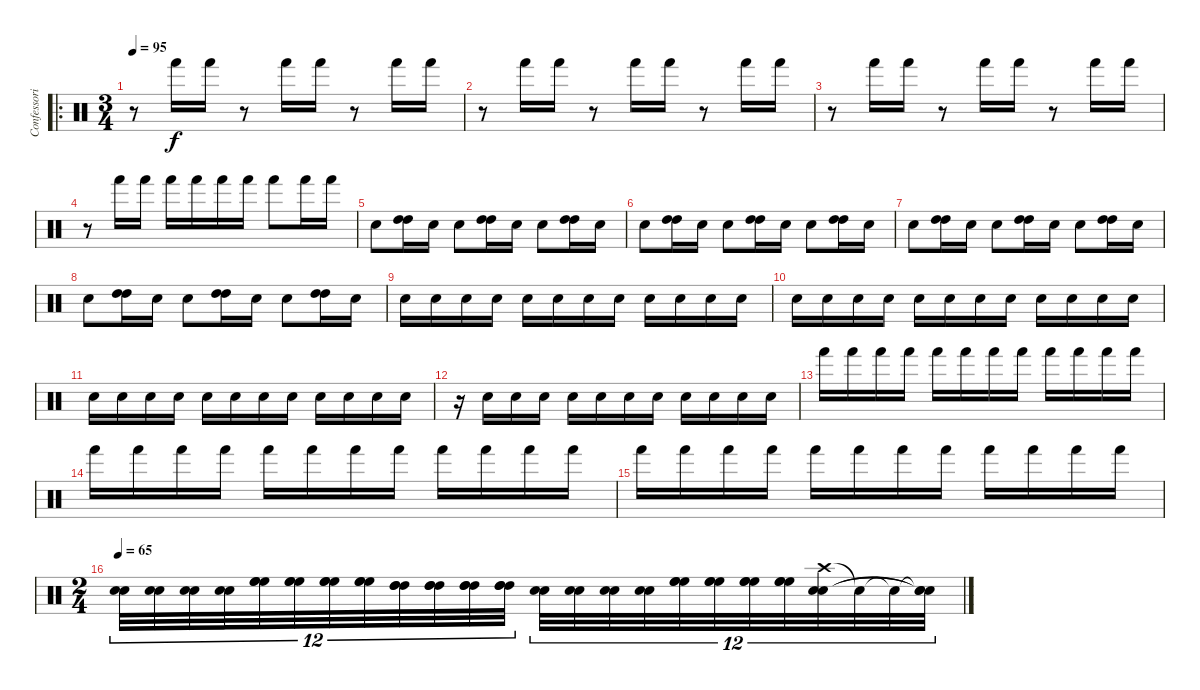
\track ("Confessori" "Confessori") {instrument percussion}
\staff {score}
\articulation defaults
\ro
\ts (3 4)
\tempo 95
\clef neutral
\ks c
r.8{dy f} "Hand (hit)".16 "Hand (hit)".16 r.8 "Hand (hit)".16 "Hand (hit)".16 r.8 "Hand (hit)".16 "Hand (hit)".16 |
r.8 "Hand (hit)".16 "Hand (hit)".16 r.8 "Hand (hit)".16 "Hand (hit)".16 r.8 "Hand (hit)".16 "Hand (hit)".16 |
r.8 "Hand (hit)".16 "Hand (hit)".16 r.8 "Hand (hit)".16 "Hand (hit)".16 r.8 "Hand (hit)".16 "Hand (hit)".16 |
r.8 "Hand (hit)".16 "Hand (hit)".16 "Hand (hit)".16 "Hand (hit)".16 "Hand (hit)".16 "Hand (hit)".16 "Hand (hit)".8 "Hand (hit)".16 "Hand (hit)".16 |
"Electric Snare (hit)".8 ("High Tom (hit)" "High Tom (hit)").16 "Electric Snare (hit)".16 "Electric Snare (hit)".8 ("High Tom (hit)" "High Tom (hit)").16 "Electric Snare (hit)".16 "Electric Snare (hit)".8 ("High Tom (hit)" "High Tom (hit)").16 "Electric Snare (hit)".16 |
"Electric Snare (hit)".8 ("High Tom (hit)" "High Tom (hit)").16 "Electric Snare (hit)".16 "Electric Snare (hit)".8 ("High Tom (hit)" "High Tom (hit)").16 "Electric Snare (hit)".16 "Electric Snare (hit)".8 ("High Tom (hit)" "High Tom (hit)").16 "Electric Snare (hit)".16 |
"Electric Snare (hit)".8 ("High Tom (hit)" "High Tom (hit)").16 "Electric Snare (hit)".16 "Electric Snare (hit)".8 ("High Tom (hit)" "High Tom (hit)").16 "Electric Snare (hit)".16 "Electric Snare (hit)".8 ("High Tom (hit)" "High Tom (hit)").16 "Electric Snare (hit)".16 |
"Electric Snare (hit)".8 ("High Tom (hit)" "High Tom (hit)").16 "Electric Snare (hit)".16 "Electric Snare (hit)".8 ("High Tom (hit)" "High Tom (hit)").16 "Electric Snare (hit)".16 "Electric Snare (hit)".8 ("High Tom (hit)" "High Tom (hit)").16 "Electric Snare (hit)".16 |
"Electric Snare (hit)".16 "Electric Snare (hit)".16 "Electric Snare (hit)".16 "Electric Snare (hit)".16 "Electric Snare (hit)".16 "Electric Snare (hit)".16 "Electric Snare (hit)".16 "Electric Snare (hit)".16 "Electric Snare (hit)".16 "Electric Snare (hit)".16 "Electric Snare (hit)".16 "Electric Snare (hit)".16 |
"Electric Snare (hit)".16 "Electric Snare (hit)".16 "Electric Snare (hit)".16 "Electric Snare (hit)".16 "Electric Snare (hit)".16 "Electric Snare (hit)".16 "Electric Snare (hit)".16 "Electric Snare (hit)".16 "Electric Snare (hit)".16 "Electric Snare (hit)".16 "Electric Snare (hit)".16 "Electric Snare (hit)".16 |
"Electric Snare (hit)".16 "Electric Snare (hit)".16 "Electric Snare (hit)".16 "Electric Snare (hit)".16 "Electric Snare (hit)".16 "Electric Snare (hit)".16 "Electric Snare (hit)".16 "Electric Snare (hit)".16 "Electric Snare (hit)".16 "Electric Snare (hit)".16 "Electric Snare (hit)".16 "Electric Snare (hit)".16 |
r.16 "Electric Snare (hit)".16 "Electric Snare (hit)".16 "Electric Snare (hit)".16 "Electric Snare (hit)".16 "Electric Snare (hit)".16 "Electric Snare (hit)".16 "Electric Snare (hit)".16 "Electric Snare (hit)".16 "Electric Snare (hit)".16 "Electric Snare (hit)".16 "Electric Snare (hit)".16 |
"Hand (hit)".16 "Hand (hit)".16 "Hand (hit)".16 "Hand (hit)".16 "Hand (hit)".16 "Hand (hit)".16 "Hand (hit)".16 "Hand (hit)".16 "Hand (hit)".16 "Hand (hit)".16 "Hand (hit)".16 "Hand (hit)".16 |
"Hand (hit)".16 "Hand (hit)".16 "Hand (hit)".16 "Hand (hit)".16 "Hand (hit)".16 "Hand (hit)".16 "Hand (hit)".16 "Hand (hit)".16 "Hand (hit)".16 "Hand (hit)".16 "Hand (hit)".16 "Hand (hit)".16 |
"Hand (hit)".16 "Hand (hit)".16 "Hand (hit)".16 "Hand (hit)".16 "Hand (hit)".16 "Hand (hit)".16 "Hand (hit)".16 "Hand (hit)".16 "Hand (hit)".16 "Hand (hit)".16 "Hand (hit)".16 "Hand (hit)".16 |
\ts (2 4)
\tempo 65
("Electric Snare (hit)" "Snare (hit) 2").32{tu (12 8) volume 10} ("Electric Snare (hit)" "Snare (hit) 2").32{tu (12 8)} ("Electric Snare (hit)" "Snare (hit) 2").32{tu (12 8)} ("Electric Snare (hit)" "Snare (hit) 2").32{tu (12 8)} ("High Floor Tom (hit)" "High Floor Tom (hit)" "High Floor Tom (hit)").32{tu (12 8)} ("High Floor Tom (hit)" "High Floor Tom (hit)" "High Floor Tom (hit)").32{tu (12 8)} ("High Floor Tom (hit)" "High Floor Tom (hit)" "High Floor Tom (hit)").32{tu (12 8)} ("High Floor Tom (hit)" "High Floor Tom (hit)" "High Floor Tom (hit)").32{tu (12 8)} ("High Tom (hit)" "High Tom (hit)" "High Tom (hit)").32{tu (12 8)} ("High Tom (hit)" "High Tom (hit)" "High Tom (hit)").32{tu (12 8)} ("High Tom (hit)" "High Tom (hit)" "High Tom (hit)").32{tu (12 8)} ("High Tom (hit)" "High Tom (hit)" "High Tom (hit)").32{tu (12 8)} ("Electric Snare (hit)" "Snare (hit) 2").32{tu (12 8)} ("Electric Snare (hit)" "Snare (hit) 2").32{tu (12 8)} ("Electric Snare (hit)" "Snare (hit) 2").32{tu (12 8)} ("Electric Snare (hit)" "Snare (hit) 2").32{tu (12 8)} ("High Floor Tom (hit)" "High Floor Tom (hit)" "High Floor Tom (hit)").32{tu (12 8)} ("High Floor Tom (hit)" "High Floor Tom (hit)" "High Floor Tom (hit)").32{tu (12 8)} ("High Floor Tom (hit)" "High Floor Tom (hit)" "High Floor Tom (hit)").32{tu (12 8)} ("High Floor Tom (hit)" "High Floor Tom (hit)" "High Floor Tom (hit)").32{tu (12 8)} ("Crash high (hit)" "Electric Snare (hit)" "Snare (hit) 2").32{tu (12 8)} "Snare (hit)"{t}.32{tu (12 8)} "Snare (hit)"{t}.32{tu (12 8)} ("Snare (hit)"{t} "Snare (hit)"{t} "Snare (hit)"{t}).32{tu (12 8)}
